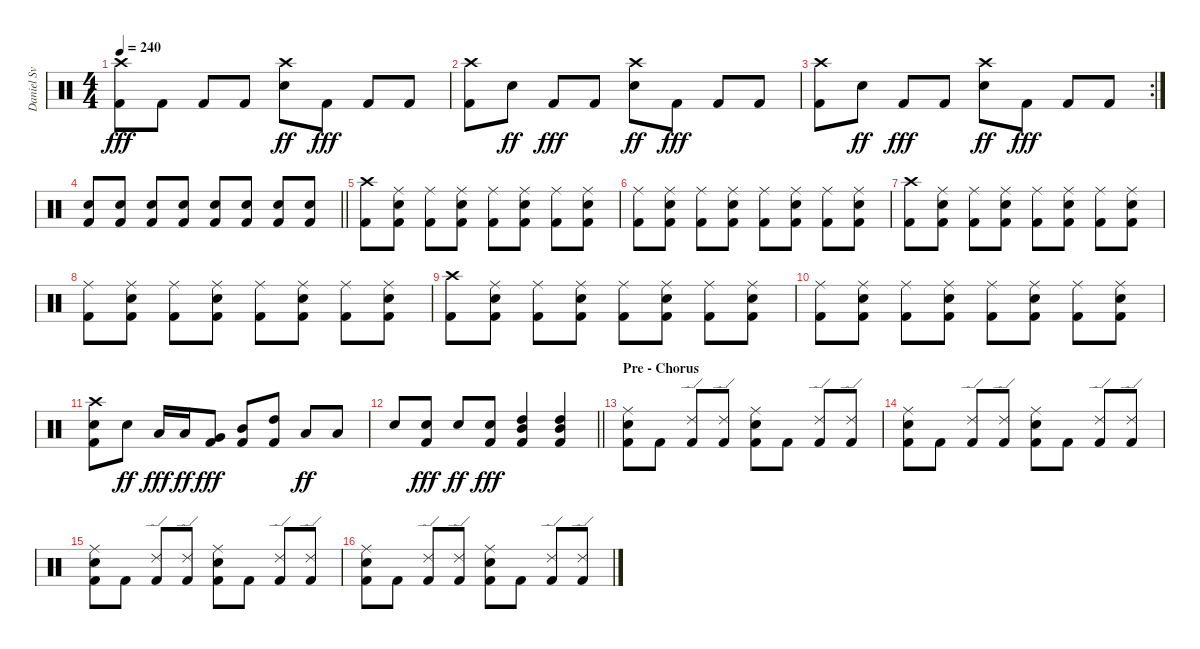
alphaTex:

\track (" Daniel Svensson" " Daniel Sv") {instrument percussion}
\staff {score}
\articulation defaults
\ts (4 4)
\tempo 240
\clef neutral
\ks c
("Crash high (hit)" "Kick (hit) 2").8{dy fff} "Kick (hit) 2".8 "Kick (hit) 2".8 "Kick (hit) 2".8 ("Crash high (hit)" "Electric Snare (hit)").8{dy ff} "Kick (hit) 2".8{dy fff} "Kick (hit) 2".8 "Kick (hit) 2".8 |
("Crash high (hit)" "Kick (hit) 2").8 "Electric Snare (hit)".8{dy ff} "Kick (hit) 2".8{dy fff} "Kick (hit) 2".8 ("Crash high (hit)" "Electric Snare (hit)").8{dy ff} "Kick (hit) 2".8{dy fff} "Kick (hit) 2".8 "Kick (hit) 2".8 |
\rc 2
("Crash high (hit)" "Kick (hit) 2").8 "Electric Snare (hit)".8{dy ff} "Kick (hit) 2".8{dy fff} "Kick (hit) 2".8 ("Crash high (hit)" "Electric Snare (hit)").8{dy ff} "Kick (hit) 2".8{dy fff} "Kick (hit) 2".8 "Kick (hit) 2".8 |
\barLineRight lightlight
("Electric Snare (hit)" "Kick (hit) 2").8 ("Electric Snare (hit)" "Kick (hit) 2").8 ("Electric Snare (hit)" "Kick (hit) 2").8 ("Electric Snare (hit)" "Kick (hit) 2").8 ("Electric Snare (hit)" "Kick (hit) 2").8 ("Electric Snare (hit)" "Kick (hit) 2").8 ("Electric Snare (hit)" "Kick (hit) 2").8 ("Electric Snare (hit)" "Kick (hit) 2").8 |
("Crash high (hit)" "Kick (hit) 2").8 ("Ride (middle)" "Electric Snare (hit)" "Kick (hit) 2").8 ("Ride (middle)" "Kick (hit) 2").8 ("Ride (middle)" "Electric Snare (hit)" "Kick (hit) 2").8 ("Ride (middle)" "Kick (hit) 2").8 ("Ride (middle)" "Electric Snare (hit)" "Kick (hit) 2").8 ("Ride (middle)" "Kick (hit) 2").8 ("Ride (middle)" "Electric Snare (hit)" "Kick (hit) 2").8 |
("Ride (middle)" "Kick (hit) 2").8 ("Ride (middle)" "Electric Snare (hit)" "Kick (hit) 2").8 ("Ride (middle)" "Kick (hit) 2").8 ("Ride (middle)" "Electric Snare (hit)" "Kick (hit) 2").8 ("Ride (middle)" "Kick (hit) 2").8 ("Ride (middle)" "Electric Snare (hit)" "Kick (hit) 2").8 ("Ride (middle)" "Kick (hit) 2").8 ("Ride (middle)" "Electric Snare (hit)" "Kick (hit) 2").8 |
("Crash high (hit)" "Kick (hit) 2").8 ("Ride (middle)" "Electric Snare (hit)" "Kick (hit) 2").8 ("Ride (middle)" "Kick (hit) 2").8 ("Ride (middle)" "Electric Snare (hit)" "Kick (hit) 2").8 ("Ride (middle)" "Kick (hit) 2").8 ("Ride (middle)" "Electric Snare (hit)" "Kick (hit) 2").8 ("Ride (middle)" "Kick (hit) 2").8 ("Ride (middle)" "Electric Snare (hit)" "Kick (hit) 2").8 |
("Ride (middle)" "Kick (hit) 2").8 ("Ride (middle)" "Electric Snare (hit)" "Kick (hit) 2").8 ("Ride (middle)" "Kick (hit) 2").8 ("Ride (middle)" "Electric Snare (hit)" "Kick (hit) 2").8 ("Ride (middle)" "Kick (hit) 2").8 ("Ride (middle)" "Electric Snare (hit)" "Kick (hit) 2").8 ("Ride (middle)" "Kick (hit) 2").8 ("Ride (middle)" "Electric Snare (hit)" "Kick (hit) 2").8 |
("Crash high (hit)" "Kick (hit) 2").8 ("Ride (middle)" "Electric Snare (hit)" "Kick (hit) 2").8 ("Ride (middle)" "Kick (hit) 2").8 ("Ride (middle)" "Electric Snare (hit)" "Kick (hit) 2").8 ("Ride (middle)" "Kick (hit) 2").8 ("Ride (middle)" "Electric Snare (hit)" "Kick (hit) 2").8 ("Ride (middle)" "Kick (hit) 2").8 ("Ride (middle)" "Electric Snare (hit)" "Kick (hit) 2").8 |
("Ride (middle)" "Kick (hit) 2").8 ("Ride (middle)" "Electric Snare (hit)" "Kick (hit) 2").8 ("Ride (middle)" "Kick (hit) 2").8 ("Ride (middle)" "Electric Snare (hit)" "Kick (hit) 2").8 ("Ride (middle)" "Kick (hit) 2").8 ("Ride (middle)" "Electric Snare (hit)" "Kick (hit) 2").8 ("Ride (middle)" "Kick (hit) 2").8 ("Ride (middle)" "Electric Snare (hit)" "Kick (hit) 2").8 |
("Crash high (hit)" "Electric Snare (hit)" "Kick (hit) 2").8 "Electric Snare (hit)".8{dy ff} "Low Floor Tom (hit)".16{dy fff} "Low Floor Tom (hit)".16{dy ff} ("Very Low Tom (hit)" "Kick (hit) 2").8{dy fff} ("Mid Tom (hit)" "Kick (hit) 2").8 ("High Tom (hit)" "Kick (hit) 2").8 "Low Tom (hit)".8{dy ff} "Low Tom (hit)".8 |
\barLineRight lightlight "Electric Snare (hit)".8
("Electric Snare (hit)" "Kick (hit) 2").8{dy fff} "Electric Snare (hit)".8{dy ff} ("Electric Snare (hit)" "Kick (hit) 2").8{dy fff} ("High Tom (hit)" "Mid Tom (hit)" "Kick (hit) 2").4 ("High Tom (hit)" "Mid Tom (hit)" "Kick (hit) 2").4 |
\section ("" "Pre - Chorus")
("Ride (middle)" "Electric Snare (hit)" "Kick (hit) 2").8 "Kick (hit) 2".8 ("Ride (edge) 2" "Kick (hit) 2").8 ("Ride (edge) 2" "Kick (hit) 2").8 ("Ride (middle)" "Electric Snare (hit)" "Kick (hit) 2").8 "Kick (hit) 2".8 ("Ride (edge) 2" "Kick (hit) 2").8 ("Ride (edge) 2" "Kick (hit) 2").8 |
("Ride (middle)" "Electric Snare (hit)" "Kick (hit) 2").8 "Kick (hit) 2".8 ("Ride (edge) 2" "Kick (hit) 2").8 ("Ride (edge) 2" "Kick (hit) 2").8 ("Ride (middle)" "Electric Snare (hit)" "Kick (hit) 2").8 "Kick (hit) 2".8 ("Ride (edge) 2" "Kick (hit) 2").8 ("Ride (edge) 2" "Kick (hit) 2").8 |
("Ride (middle)" "Electric Snare (hit)" "Kick (hit) 2").8 "Kick (hit) 2".8 ("Ride (edge) 2" "Kick (hit) 2").8 ("Ride (edge) 2" "Kick (hit) 2").8 ("Ride (middle)" "Electric Snare (hit)" "Kick (hit) 2").8 "Kick (hit) 2".8 ("Ride (edge) 2" "Kick (hit) 2").8 ("Ride (edge) 2" "Kick (hit) 2").8 |
("Ride (middle)" "Electric Snare (hit)" "Kick (hit) 2").8 "Kick (hit) 2".8 ("Ride (edge) 2" "Kick (hit) 2").8 ("Ride (edge) 2" "Kick (hit) 2").8 ("Ride (middle)" "Electric Snare (hit)" "Kick (hit) 2").8 "Kick (hit) 2".8 ("Ride (edge) 2" "Kick (hit) 2").8 ("Ride (edge) 2" "Kick (hit) 2").8
